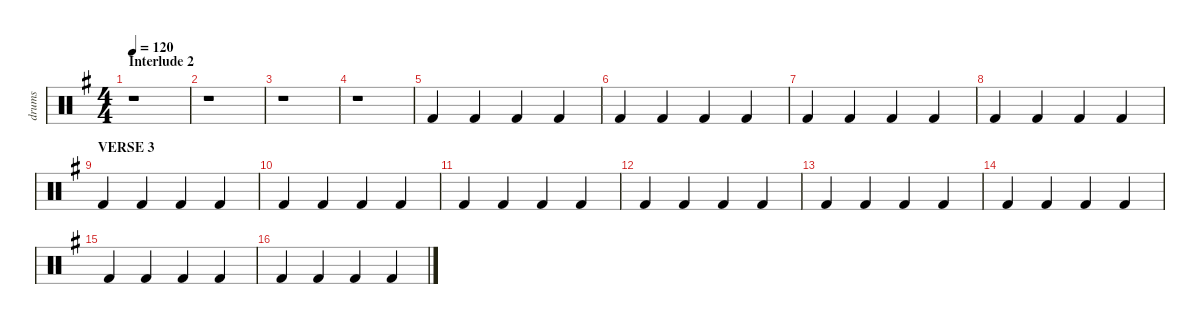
\defaultSystemsLayout 4
\hideDynamics
\bracketExtendMode nobrackets
\otherSystemsTrackNameOrientation horizontal
\track ("drums" "drums") {instrument percussion}
\staff {score}
\articulation defaults
\ts (4 4)
\section ("" "Interlude 2")
\tempo 120
\clef neutral
\scale
1.07945
\ks eminor
r.1{dy mf beam Down} |
\scale
0.973518 r.1{beam Down} |
\scale
0.973518 r.1{beam Down} |
\scale
0.973518 r.1{beam Down} |
\scale
1.07945 "Kick (hit) 2"{acc forcenatural}.4{beam Up} "Kick (hit) 2"{acc forcenatural}.4{beam Up} "Kick (hit) 2"{acc forcenatural}.4{beam Up} "Kick (hit) 2"{acc forcenatural}.4{beam Up} |
\scale
0.973518 "Kick (hit) 2"{acc forcenatural}.4{beam Up} "Kick (hit) 2"{acc forcenatural}.4{beam Up} "Kick (hit) 2"{acc forcenatural}.4{beam Up} "Kick (hit) 2"{acc forcenatural}.4{beam Up} |
\scale
0.973518 "Kick (hit) 2"{acc forcenatural}.4{beam Up} "Kick (hit) 2"{acc forcenatural}.4{beam Up} "Kick (hit) 2"{acc forcenatural}.4{beam Up} "Kick (hit) 2"{acc forcenatural}.4{beam Up} |
\scale
0.973518 "Kick (hit) 2"{acc forcenatural}.4{beam Up} "Kick (hit) 2"{acc forcenatural}.4{beam Up} "Kick (hit) 2"{acc forcenatural}.4{beam Up} "Kick (hit) 2"{acc forcenatural}.4{beam Up} |
\section ("" "VERSE 3")
\scale
1.07945 "Kick (hit) 2"{acc forcenatural}.4{beam Up} "Kick (hit) 2"{acc forcenatural}.4{beam Up} "Kick (hit) 2"{acc forcenatural}.4{beam Up} "Kick (hit) 2"{acc forcenatural}.4{beam Up} |
\scale
0.973518 "Kick (hit) 2"{acc forcenatural}.4{beam Up} "Kick (hit) 2"{acc forcenatural}.4{beam Up} "Kick (hit) 2"{acc forcenatural}.4{beam Up} "Kick (hit) 2"{acc forcenatural}.4{beam Up} |
\scale
0.973518 "Kick (hit) 2"{acc forcenatural}.4{beam Up} "Kick (hit) 2"{acc forcenatural}.4{beam Up} "Kick (hit) 2"{acc forcenatural}.4{beam Up} "Kick (hit) 2"{acc forcenatural}.4{beam Up} |
\scale
0.973518 "Kick (hit) 2"{acc forcenatural}.4{beam Up} "Kick (hit) 2"{acc forcenatural}.4{beam Up} "Kick (hit) 2"{acc forcenatural}.4{beam Up} "Kick (hit) 2"{acc forcenatural}.4{beam Up} |
\scale
1.07945 "Kick (hit) 2"{acc forcenatural}.4{beam Up} "Kick (hit) 2"{acc forcenatural}.4{beam Up} "Kick (hit) 2"{acc forcenatural}.4{beam Up} "Kick (hit) 2"{acc forcenatural}.4{beam Up} |
\scale
0.973518 "Kick (hit) 2"{acc forcenatural}.4{beam Up} "Kick (hit) 2"{acc forcenatural}.4{beam Up} "Kick (hit) 2"{acc forcenatural}.4{beam Up} "Kick (hit) 2"{acc forcenatural}.4{beam Up} |
\scale
0.973518 "Kick (hit) 2"{acc forcenatural}.4{beam Up} "Kick (hit) 2"{acc forcenatural}.4{beam Up} "Kick (hit) 2"{acc forcenatural}.4{beam Up} "Kick (hit) 2"{acc forcenatural}.4{beam Up} |
\scale
0.973518 "Kick (hit) 2"{acc forcenatural}.4{beam Up} "Kick (hit) 2"{acc forcenatural}.4{beam Up} "Kick (hit) 2"{acc forcenatural}.4{beam Up} "Kick (hit) 2"{acc forcenatural}.4{beam Up}
